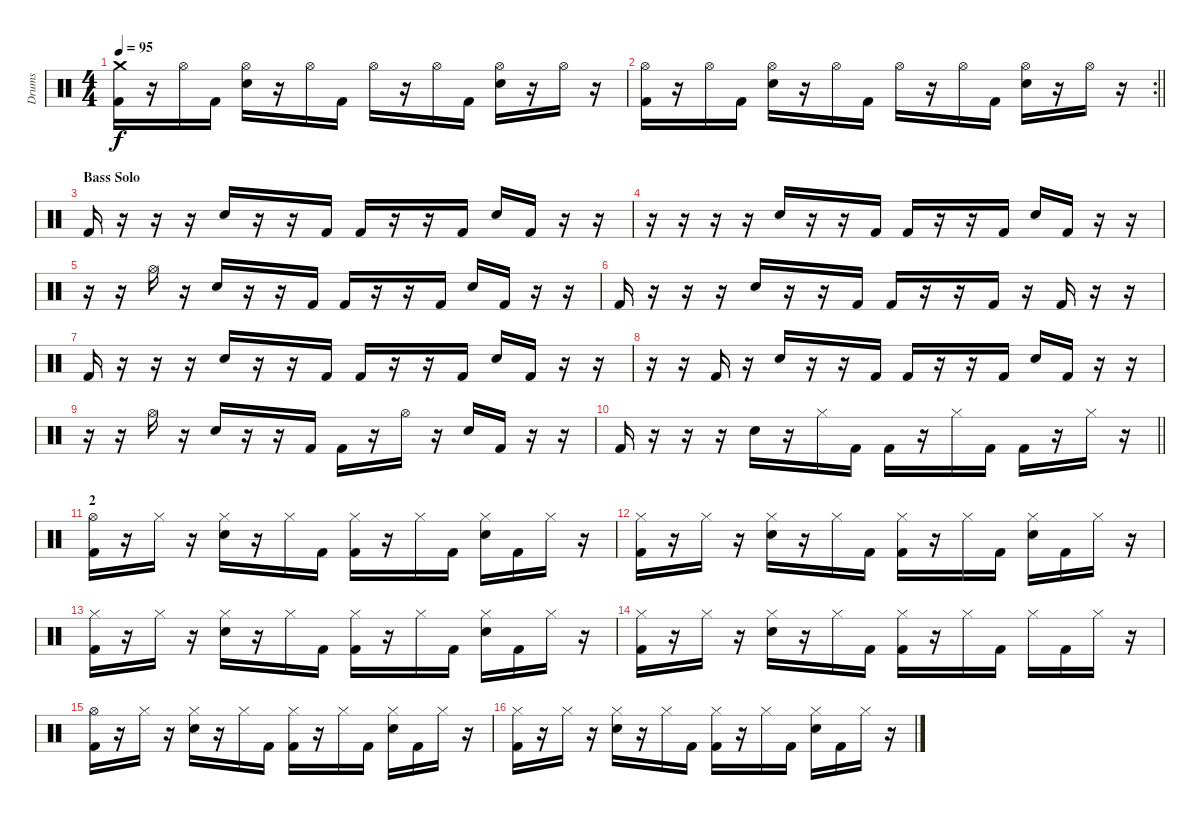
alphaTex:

\track ("Drums" "Drums") {instrument percussion}
\staff {score}
\articulation defaults
\ts (4 4)
\tempo 95
\clef neutral
\ks c
("Crash medium (hit)" "Kick (hit) 2").16{dy f} r.16 "Hi-Hat (open)".16 "Kick (hit) 2".16 ("Hi-Hat (open)" "Snare (hit) 2").16 r.16 "Hi-Hat (open)".16 "Kick (hit) 2".16 "Hi-Hat (open)".16 r.16 "Hi-Hat (open)".16 "Kick (hit) 2".16 ("Hi-Hat (open)" "Snare (hit) 2").16 r.16 "Hi-Hat (open)".16 r.16 |
\rc 2
\barLineRight lightlight
("Hi-Hat (open)" "Kick (hit) 2").16 r.16 "Hi-Hat (open)".16 "Kick (hit) 2".16 ("Hi-Hat (open)" "Snare (hit) 2").16 r.16 "Hi-Hat (open)".16 "Kick (hit) 2".16 "Hi-Hat (open)".16 r.16 "Hi-Hat (open)".16 "Kick (hit) 2".16 ("Hi-Hat (open)" "Snare (hit) 2").16 r.16 "Hi-Hat (open)".16 r.16 |
\section ("" "Bass Solo")
"Kick (hit) 2".16 r.16 r.16 r.16 "Snare (hit) 2".16 r.16 r.16 "Kick (hit) 2".16 "Kick (hit) 2".16 r.16 r.16 "Kick (hit) 2".16 "Snare (hit) 2".16 "Kick (hit) 2".16 r.16 r.16 |
r.16 r.16 r.16 r.16 "Snare (hit) 2".16 r.16 r.16 "Kick (hit) 2".16 "Kick (hit) 2".16 r.16 r.16 "Kick (hit) 2".16 "Snare (hit) 2".16 "Kick (hit) 2".16 r.16 r.16 |
r.16 r.16 "Hi-Hat (open)".16 r.16 "Snare (hit) 2".16 r.16 r.16 "Kick (hit) 2".16 "Kick (hit) 2".16 r.16 r.16 "Kick (hit) 2".16 "Snare (hit) 2".16 "Kick (hit) 2".16 r.16 r.16 |
"Kick (hit) 2".16 r.16 r.16 r.16 "Snare (hit) 2".16 r.16 r.16 "Kick (hit) 2".16 "Kick (hit) 2".16 r.16 r.16 "Kick (hit) 2".16 r.16 "Kick (hit) 2".16 r.16 r.16 |
"Kick (hit) 2".16 r.16 r.16 r.16 "Snare (hit) 2".16 r.16 r.16 "Kick (hit) 2".16 "Kick (hit) 2".16 r.16 r.16 "Kick (hit) 2".16 "Snare (hit) 2".16 "Kick (hit) 2".16 r.16 r.16 |
r.16 r.16 "Kick (hit) 2".16 r.16 "Snare (hit) 2".16 r.16 r.16 "Kick (hit) 2".16 "Kick (hit) 2".16 r.16 r.16 "Kick (hit) 2".16 "Snare (hit) 2".16 "Kick (hit) 2".16 r.16 r.16 |
r.16 r.16 "Hi-Hat (open)".16 r.16 "Snare (hit) 2".16 r.16 r.16 "Kick (hit) 2".16 "Kick (hit) 2".16 r.16 "Hi-Hat (open)".16 r.16 "Snare (hit) 2".16 "Kick (hit) 2".16 r.16 r.16 |
\barLineRight lightlight "Kick (hit) 2".16
r.16 r.16 r.16 "Snare (hit) 2".16 r.16 "Hi-Hat (closed)".16 "Kick (hit) 2".16 "Kick (hit) 2".16 r.16 "Hi-Hat (closed)".16 "Kick (hit) 2".16 "Kick (hit) 2".16 r.16 "Hi-Hat (closed)".16 r.16 |
\section ("" "2")
("Hi-Hat (open)" "Kick (hit) 2").16 r.16 "Hi-Hat (closed)".16 r.16 ("Hi-Hat (closed)" "Snare (hit) 2").16 r.16 "Hi-Hat (closed)".16 "Kick (hit) 2".16 ("Hi-Hat (closed)" "Kick (hit) 2").16 r.16 "Hi-Hat (closed)".16 "Kick (hit) 2".16 ("Hi-Hat (closed)" "Snare (hit) 2").16 "Kick (hit) 2".16 "Hi-Hat (closed)".16 r.16 |
("Hi-Hat (closed)" "Kick (hit) 2").16 r.16 "Hi-Hat (closed)".16 r.16 ("Hi-Hat (closed)" "Snare (hit) 2").16 r.16 "Hi-Hat (closed)".16 "Kick (hit) 2".16 ("Hi-Hat (closed)" "Kick (hit) 2").16 r.16 "Hi-Hat (closed)".16 "Kick (hit) 2".16 ("Hi-Hat (closed)" "Snare (hit) 2").16 "Kick (hit) 2".16 "Hi-Hat (closed)".16 r.16 |
("Hi-Hat (closed)" "Kick (hit) 2").16 r.16 "Hi-Hat (closed)".16 r.16 ("Hi-Hat (closed)" "Snare (hit) 2").16 r.16 "Hi-Hat (closed)".16 "Kick (hit) 2".16 ("Hi-Hat (closed)" "Kick (hit) 2").16 r.16 "Hi-Hat (closed)".16 "Kick (hit) 2".16 ("Hi-Hat (closed)" "Snare (hit) 2").16 "Kick (hit) 2".16 "Hi-Hat (closed)".16 r.16 |
("Hi-Hat (closed)" "Kick (hit) 2").16 r.16 "Hi-Hat (closed)".16 r.16 ("Hi-Hat (closed)" "Snare (hit) 2").16 r.16 "Hi-Hat (closed)".16 "Kick (hit) 2".16 ("Hi-Hat (closed)" "Kick (hit) 2").16 r.16 "Hi-Hat (closed)".16 "Kick (hit) 2".16 "Hi-Hat (closed)".16 "Kick (hit) 2".16 "Hi-Hat (closed)".16 r.16 |
("Hi-Hat (open)" "Kick (hit) 2").16 r.16 "Hi-Hat (closed)".16 r.16 ("Hi-Hat (closed)" "Snare (hit) 2").16 r.16 "Hi-Hat (closed)".16 "Kick (hit) 2".16 ("Hi-Hat (closed)" "Kick (hit) 2").16 r.16 "Hi-Hat (closed)".16 "Kick (hit) 2".16 ("Hi-Hat (closed)" "Snare (hit) 2").16 "Kick (hit) 2".16 "Hi-Hat (closed)".16 r.16 |
("Hi-Hat (closed)" "Kick (hit) 2").16 r.16 "Hi-Hat (closed)".16 r.16 ("Hi-Hat (closed)" "Snare (hit) 2").16 r.16 "Hi-Hat (closed)".16 "Kick (hit) 2".16 ("Hi-Hat (closed)" "Kick (hit) 2").16 r.16 "Hi-Hat (closed)".16 "Kick (hit) 2".16 ("Hi-Hat (closed)" "Snare (hit) 2").16 "Kick (hit) 2".16 "Hi-Hat (closed)".16 r.16
